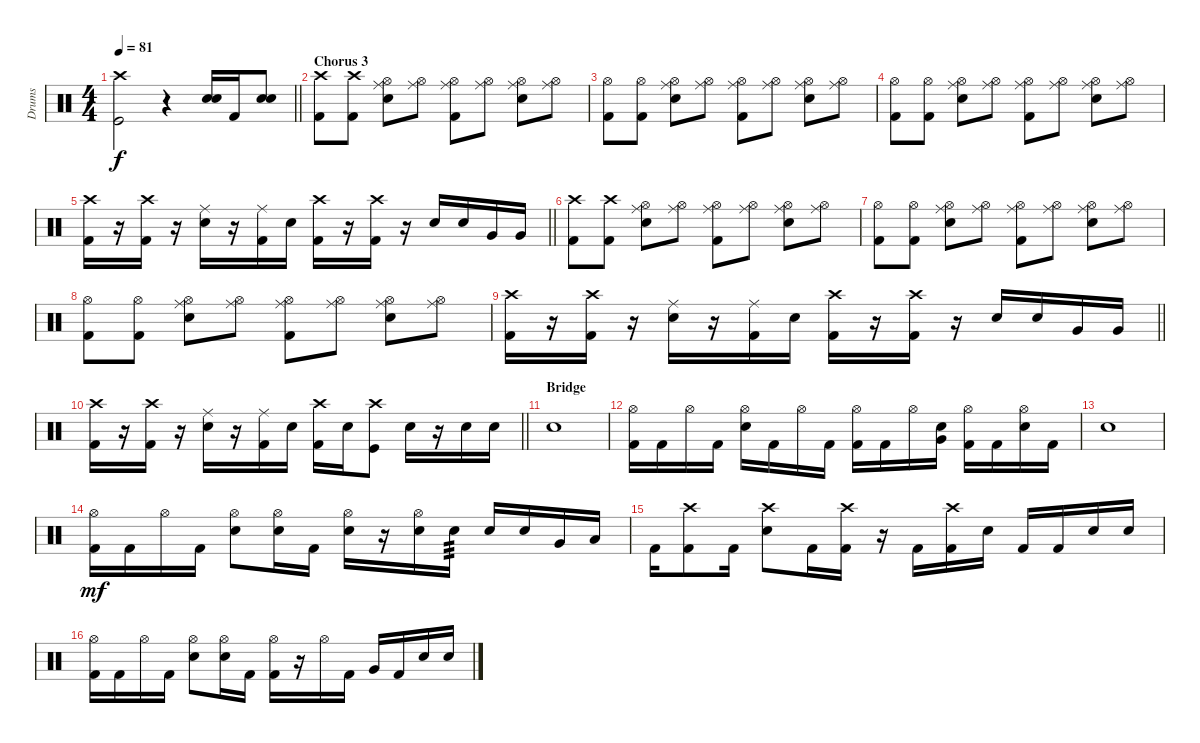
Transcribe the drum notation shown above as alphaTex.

\track ("Drums" "Drums") {instrument percussion}
\staff {score}
\articulation defaults
\ts (4 4)
\tempo 81
\clef neutral
\barLineRight lightlight
\ks c
("Crash high (hit)" "Kick (hit)").2{dy f} r.4 ("Snare (hit) 2" "Snare (hit) 2").16{volume 9} "Kick (hit) 2".16 ("Snare (hit) 2" "Snare (hit) 2").8 |
\section ("" "Chorus 3")
("Crash high (hit)" "Kick (hit) 2").8 ("Crash high (hit)" "Kick (hit) 2").8 ("Ride (middle)" "Snare (hit) 2" "Hi-Hat (open)").8 ("Ride (middle)" "Hi-Hat (open)").8 ("Ride (middle)" "Kick (hit) 2" "Hi-Hat (open)").8 ("Ride (middle)" "Hi-Hat (open)").8 ("Ride (middle)" "Snare (hit) 2" "Hi-Hat (open)").8 ("Ride (middle)" "Hi-Hat (open)").8 |
("Kick (hit) 2" "Hi-Hat (open)").8 ("Kick (hit) 2" "Hi-Hat (open)").8 ("Ride (middle)" "Snare (hit) 2" "Hi-Hat (open)").8 ("Ride (middle)" "Hi-Hat (open)").8 ("Ride (middle)" "Kick (hit) 2" "Hi-Hat (open)").8 ("Ride (middle)" "Hi-Hat (open)").8 ("Ride (middle)" "Snare (hit) 2" "Hi-Hat (open)").8 ("Ride (middle)" "Hi-Hat (open)").8 |
("Kick (hit) 2" "Hi-Hat (open)").8 ("Kick (hit) 2" "Hi-Hat (open)").8 ("Ride (middle)" "Snare (hit) 2" "Hi-Hat (open)").8 ("Ride (middle)" "Hi-Hat (open)").8 ("Ride (middle)" "Kick (hit) 2" "Hi-Hat (open)").8 ("Ride (middle)" "Hi-Hat (open)").8 ("Ride (middle)" "Snare (hit) 2" "Hi-Hat (open)").8 ("Ride (middle)" "Hi-Hat (open)").8 |
\barLineRight lightlight
("Crash high (hit)" "Kick (hit) 2").16 r.16 ("Crash high (hit)" "Kick (hit) 2").16 r.16 ("Ride (middle)" "Snare (hit) 2").16 r.16 ("Ride (middle)" "Kick (hit) 2").16 "Snare (hit) 2".16 ("Crash high (hit)" "Kick (hit) 2").16 r.16 ("Crash high (hit)" "Kick (hit) 2").16 r.16 "Snare (hit) 2".16 "Snare (hit) 2".16 "Very Low Tom (hit)".16 "Very Low Tom (hit)".16 |
("Crash high (hit)" "Kick (hit) 2").8 ("Crash high (hit)" "Kick (hit) 2").8 ("Ride (middle)" "Snare (hit) 2" "Hi-Hat (open)").8 ("Ride (middle)" "Hi-Hat (open)").8 ("Ride (middle)" "Kick (hit) 2" "Hi-Hat (open)").8 ("Ride (middle)" "Hi-Hat (open)").8 ("Ride (middle)" "Snare (hit) 2" "Hi-Hat (open)").8 ("Ride (middle)" "Hi-Hat (open)").8 |
("Kick (hit) 2" "Hi-Hat (open)").8 ("Kick (hit) 2" "Hi-Hat (open)").8 ("Ride (middle)" "Snare (hit) 2" "Hi-Hat (open)").8 ("Ride (middle)" "Hi-Hat (open)").8 ("Ride (middle)" "Kick (hit) 2" "Hi-Hat (open)").8 ("Ride (middle)" "Hi-Hat (open)").8 ("Ride (middle)" "Snare (hit) 2" "Hi-Hat (open)").8 ("Ride (middle)" "Hi-Hat (open)").8 |
("Kick (hit) 2" "Hi-Hat (open)").8 ("Kick (hit) 2" "Hi-Hat (open)").8 ("Ride (middle)" "Snare (hit) 2" "Hi-Hat (open)").8 ("Ride (middle)" "Hi-Hat (open)").8 ("Ride (middle)" "Kick (hit) 2" "Hi-Hat (open)").8 ("Ride (middle)" "Hi-Hat (open)").8 ("Ride (middle)" "Snare (hit) 2" "Hi-Hat (open)").8 ("Ride (middle)" "Hi-Hat (open)").8 |
\barLineRight lightlight
("Crash high (hit)" "Kick (hit) 2").16 r.16 ("Crash high (hit)" "Kick (hit) 2").16 r.16 ("Ride (middle)" "Snare (hit) 2").16 r.16 ("Ride (middle)" "Kick (hit) 2").16 "Snare (hit) 2".16 ("Crash high (hit)" "Kick (hit) 2").16 r.16 ("Crash high (hit)" "Kick (hit) 2").16 r.16 "Snare (hit) 2".16 "Snare (hit) 2".16 "Very Low Tom (hit)".16 "Very Low Tom (hit)".16 |
\barLineRight lightlight
("Crash high (hit)" "Kick (hit) 2").16 r.16 ("Crash high (hit)" "Kick (hit) 2").16 r.16 ("Ride (middle)" "Snare (hit) 2").16 r.16 ("Ride (middle)" "Kick (hit) 2").16 "Snare (hit) 2".16 ("Crash high (hit)" "Kick (hit) 2").16 "Snare (hit) 2".16 ("Crash high (hit)" "Kick (hit)").8 "Snare (hit) 2".16 r.16 "Snare (hit) 2".16 "Snare (hit) 2".16 |
\section ("" "Bridge")
"Snare (hit) 2".1 |
("Hi-Hat (open)" "Kick (hit) 2").16 "Kick (hit) 2".16 "Hi-Hat (open)".16 "Kick (hit) 2".16 ("Hi-Hat (open)" "Snare (hit) 2").16 "Kick (hit) 2".16 "Hi-Hat (open)".16 "Kick (hit) 2".16 ("Kick (hit) 2" "Hi-Hat (open)").16 "Kick (hit) 2".16 "Hi-Hat (open)".16 ("Very Low Tom (hit)" "Snare (hit) 2").16 ("Kick (hit) 2" "Hi-Hat (open)").16 "Kick (hit) 2".16 ("Snare (hit) 2" "Hi-Hat (open)").16 "Kick (hit) 2".16 |
"Snare (hit) 2".1 |
("Hi-Hat (open)" "Kick (hit) 2").16{dy mf} "Kick (hit) 2".16 "Hi-Hat (open)".16 "Kick (hit) 2".16 ("Hi-Hat (open)" "Snare (hit) 2").8 ("Hi-Hat (open)" "Snare (hit) 2").16 "Kick (hit) 2".16 ("Hi-Hat (open)" "Snare (hit) 2").16 r.16 ("Hi-Hat (open)" "Snare (hit) 2").16 "Snare (hit) 2".16{tp 3} "Snare (hit) 2".16 "Snare (hit) 2".16 "Very Low Tom (hit)".16 "Low Floor Tom (hit)".16 |
"Kick (hit) 2".16 ("Crash high (hit)" "Kick (hit) 2").8 "Kick (hit) 2".16 ("Crash high (hit)" "Snare (hit) 2").8 "Kick (hit) 2".16 ("Crash high (hit)" "Kick (hit) 2").16 r.16 "Kick (hit) 2".16 ("Crash high (hit)" "Kick (hit) 2").16 "Snare (hit) 2".16 "Kick (hit) 2".16 "Kick (hit) 2".16 "Snare (hit) 2".16 "Snare (hit) 2".16 |
("Hi-Hat (open)" "Kick (hit) 2").16 "Kick (hit) 2".16 "Hi-Hat (open)".16 "Kick (hit) 2".16 ("Hi-Hat (open)" "Snare (hit) 2").8 ("Hi-Hat (open)" "Snare (hit) 2").16 "Kick (hit) 2".16 ("Hi-Hat (open)" "Kick (hit) 2").16 r.16 "Hi-Hat (open)".16 "Kick (hit) 2".16 "Very Low Tom (hit)".16 "Kick (hit) 2".16 "Snare (hit) 2".16 "Snare (hit) 2".16
